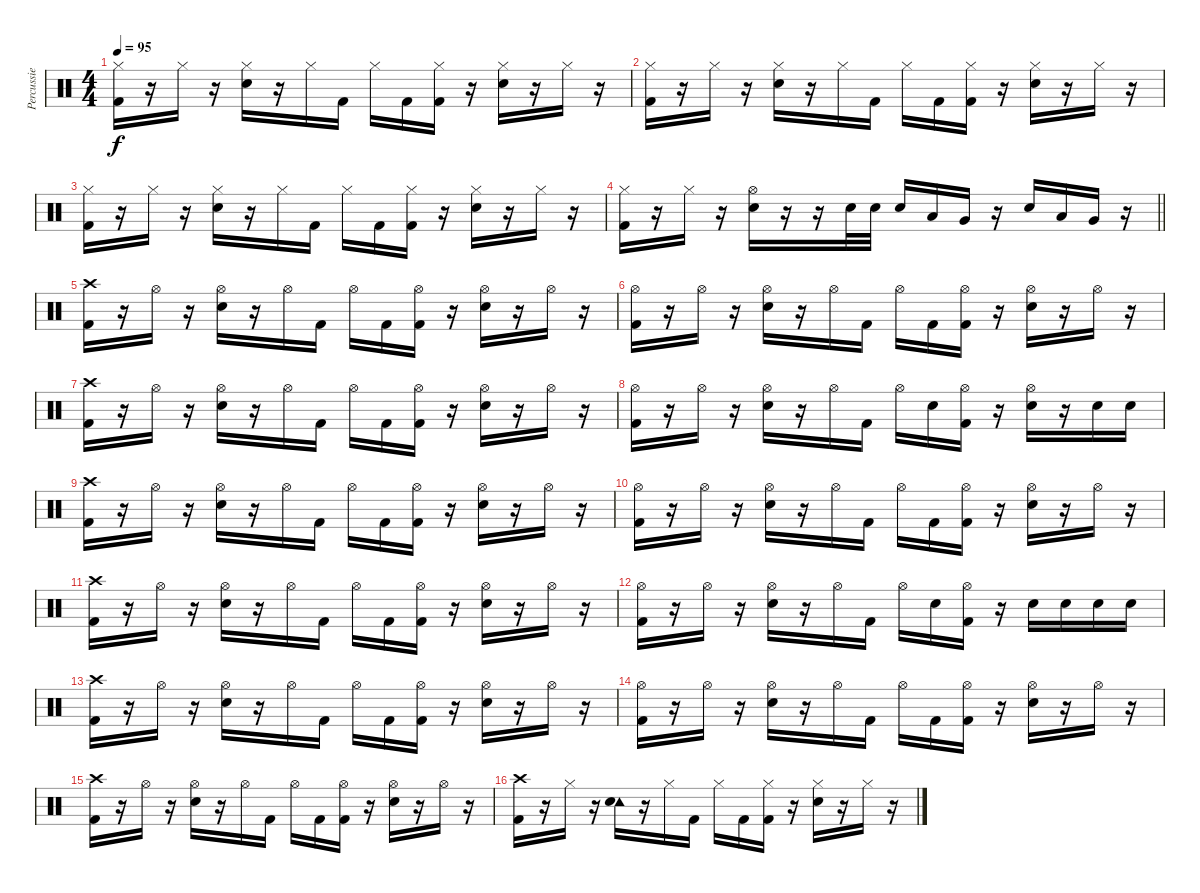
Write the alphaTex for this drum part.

\track ("Percussie" "Percussie") {instrument percussion}
\staff {score}
\articulation defaults
\ts (4 4)
\tempo 95
\clef neutral
\ks c
("Hi-Hat (closed)" "Kick (hit) 2").16{dy f} r.16 "Hi-Hat (closed)".16 r.16 ("Hi-Hat (closed)" "Electric Snare (hit)").16 r.16 "Hi-Hat (closed)".16 "Kick (hit) 2".16 "Hi-Hat (closed)".16 "Kick (hit) 2".16 ("Hi-Hat (closed)" "Kick (hit) 2").16 r.16 ("Hi-Hat (closed)" "Electric Snare (hit)").16 r.16 "Hi-Hat (closed)".16 r.16 |
("Hi-Hat (closed)" "Kick (hit) 2").16 r.16 "Hi-Hat (closed)".16 r.16 ("Hi-Hat (closed)" "Electric Snare (hit)").16 r.16 "Hi-Hat (closed)".16 "Kick (hit) 2".16 "Hi-Hat (closed)".16 "Kick (hit) 2".16 ("Hi-Hat (closed)" "Kick (hit) 2").16 r.16 ("Hi-Hat (closed)" "Electric Snare (hit)").16 r.16 "Hi-Hat (closed)".16 r.16 |
("Hi-Hat (closed)" "Kick (hit) 2").16 r.16 "Hi-Hat (closed)".16 r.16 ("Hi-Hat (closed)" "Electric Snare (hit)").16 r.16 "Hi-Hat (closed)".16 "Kick (hit) 2".16 "Hi-Hat (closed)".16 "Kick (hit) 2".16 ("Hi-Hat (closed)" "Kick (hit) 2").16 r.16 ("Hi-Hat (closed)" "Electric Snare (hit)").16 r.16 "Hi-Hat (closed)".16 r.16 |
\barLineRight lightlight
("Hi-Hat (closed)" "Kick (hit) 2").16 r.16 "Hi-Hat (closed)".16 r.16 ("Hi-Hat (open)" "Electric Snare (hit)").16 r.16 r.16 "Electric Snare (hit)".32 "Electric Snare (hit)".32 "Electric Snare (hit)".16 "Low Tom (hit)".16 "Very Low Tom (hit)".16 r.16 "Electric Snare (hit)".16 "Low Tom (hit)".16 "Very Low Tom (hit)".16 r.16 |
("Crash high (hit)" "Kick (hit) 2").16 r.16 "Hi-Hat (open)".16 r.16 ("Hi-Hat (open)" "Electric Snare (hit)").16 r.16 "Hi-Hat (open)".16 "Kick (hit) 2".16 "Hi-Hat (open)".16 "Kick (hit) 2".16 ("Hi-Hat (open)" "Kick (hit) 2").16 r.16 ("Hi-Hat (open)" "Electric Snare (hit)").16 r.16 "Hi-Hat (open)".16 r.16 |
("Hi-Hat (open)" "Kick (hit) 2").16 r.16 "Hi-Hat (open)".16 r.16 ("Hi-Hat (open)" "Electric Snare (hit)").16 r.16 "Hi-Hat (open)".16 "Kick (hit) 2".16 "Hi-Hat (open)".16 "Kick (hit) 2".16 ("Hi-Hat (open)" "Kick (hit) 2").16 r.16 ("Hi-Hat (open)" "Electric Snare (hit)").16 r.16 "Hi-Hat (open)".16 r.16 |
("Crash high (hit)" "Kick (hit) 2").16 r.16 "Hi-Hat (open)".16 r.16 ("Hi-Hat (open)" "Electric Snare (hit)").16 r.16 "Hi-Hat (open)".16 "Kick (hit) 2".16 "Hi-Hat (open)".16 "Kick (hit) 2".16 ("Hi-Hat (open)" "Kick (hit) 2").16 r.16 ("Hi-Hat (open)" "Electric Snare (hit)").16 r.16 "Hi-Hat (open)".16 r.16 |
("Hi-Hat (open)" "Kick (hit) 2").16 r.16 "Hi-Hat (open)".16 r.16 ("Hi-Hat (open)" "Electric Snare (hit)").16 r.16 "Hi-Hat (open)".16 "Kick (hit) 2".16 "Hi-Hat (open)".16 "Electric Snare (hit)".16 ("Hi-Hat (open)" "Kick (hit) 2").16 r.16 ("Hi-Hat (open)" "Electric Snare (hit)").16 r.16 "Electric Snare (hit)".16 "Electric Snare (hit)".16 |
("Crash high (hit)" "Kick (hit) 2").16 r.16 "Hi-Hat (open)".16 r.16 ("Hi-Hat (open)" "Electric Snare (hit)").16 r.16 "Hi-Hat (open)".16 "Kick (hit) 2".16 "Hi-Hat (open)".16 "Kick (hit) 2".16 ("Hi-Hat (open)" "Kick (hit) 2").16 r.16 ("Hi-Hat (open)" "Electric Snare (hit)").16 r.16 "Hi-Hat (open)".16 r.16 |
("Hi-Hat (open)" "Kick (hit) 2").16 r.16 "Hi-Hat (open)".16 r.16 ("Hi-Hat (open)" "Electric Snare (hit)").16 r.16 "Hi-Hat (open)".16 "Kick (hit) 2".16 "Hi-Hat (open)".16 "Kick (hit) 2".16 ("Hi-Hat (open)" "Kick (hit) 2").16 r.16 ("Hi-Hat (open)" "Electric Snare (hit)").16 r.16 "Hi-Hat (open)".16 r.16 |
("Crash high (hit)" "Kick (hit) 2").16 r.16 "Hi-Hat (open)".16 r.16 ("Hi-Hat (open)" "Electric Snare (hit)").16 r.16 "Hi-Hat (open)".16 "Kick (hit) 2".16 "Hi-Hat (open)".16 "Kick (hit) 2".16 ("Hi-Hat (open)" "Kick (hit) 2").16 r.16 ("Hi-Hat (open)" "Electric Snare (hit)").16 r.16 "Hi-Hat (open)".16 r.16 |
("Hi-Hat (open)" "Kick (hit) 2").16 r.16 "Hi-Hat (open)".16 r.16 ("Hi-Hat (open)" "Electric Snare (hit)").16 r.16 "Hi-Hat (open)".16 "Kick (hit) 2".16 "Hi-Hat (open)".16 "Electric Snare (hit)".16 ("Hi-Hat (open)" "Kick (hit) 2").16 r.16 "Electric Snare (hit)".16 "Electric Snare (hit)".16 "Electric Snare (hit)".16 "Electric Snare (hit)".16 |
("Crash high (hit)" "Kick (hit) 2").16 r.16 "Hi-Hat (open)".16 r.16 ("Hi-Hat (open)" "Electric Snare (hit)").16 r.16 "Hi-Hat (open)".16 "Kick (hit) 2".16 "Hi-Hat (open)".16 "Kick (hit) 2".16 ("Hi-Hat (open)" "Kick (hit) 2").16 r.16 ("Hi-Hat (open)" "Electric Snare (hit)").16 r.16 "Hi-Hat (open)".16 r.16 |
("Hi-Hat (open)" "Kick (hit) 2").16 r.16 "Hi-Hat (open)".16 r.16 ("Hi-Hat (open)" "Electric Snare (hit)").16 r.16 "Hi-Hat (open)".16 "Kick (hit) 2".16 "Hi-Hat (open)".16 "Kick (hit) 2".16 ("Hi-Hat (open)" "Kick (hit) 2").16 r.16 ("Hi-Hat (open)" "Electric Snare (hit)").16 r.16 "Hi-Hat (open)".16 r.16 |
("Crash high (hit)" "Kick (hit) 2").16 r.16 "Hi-Hat (open)".16 r.16 ("Hi-Hat (open)" "Electric Snare (hit)").16 r.16 "Hi-Hat (open)".16 "Kick (hit) 2".16 "Hi-Hat (open)".16 "Kick (hit) 2".16 ("Hi-Hat (open)" "Kick (hit) 2").16 r.16 ("Hi-Hat (open)" "Electric Snare (hit)").16 r.16 "Hi-Hat (open)".16 r.16 |
("Crash high (hit)" "Kick (hit) 2").16 r.16 "Hi-Hat (closed)".16 r.16 ("Tambourine (hit)" "Electric Snare (hit)").16 r.16 "Hi-Hat (closed)".16 "Kick (hit) 2".16 "Hi-Hat (closed)".16 "Kick (hit) 2".16 ("Hi-Hat (closed)" "Kick (hit) 2").16 r.16 ("Hi-Hat (closed)" "Electric Snare (hit)").16 r.16 "Hi-Hat (closed)".16 r.16
